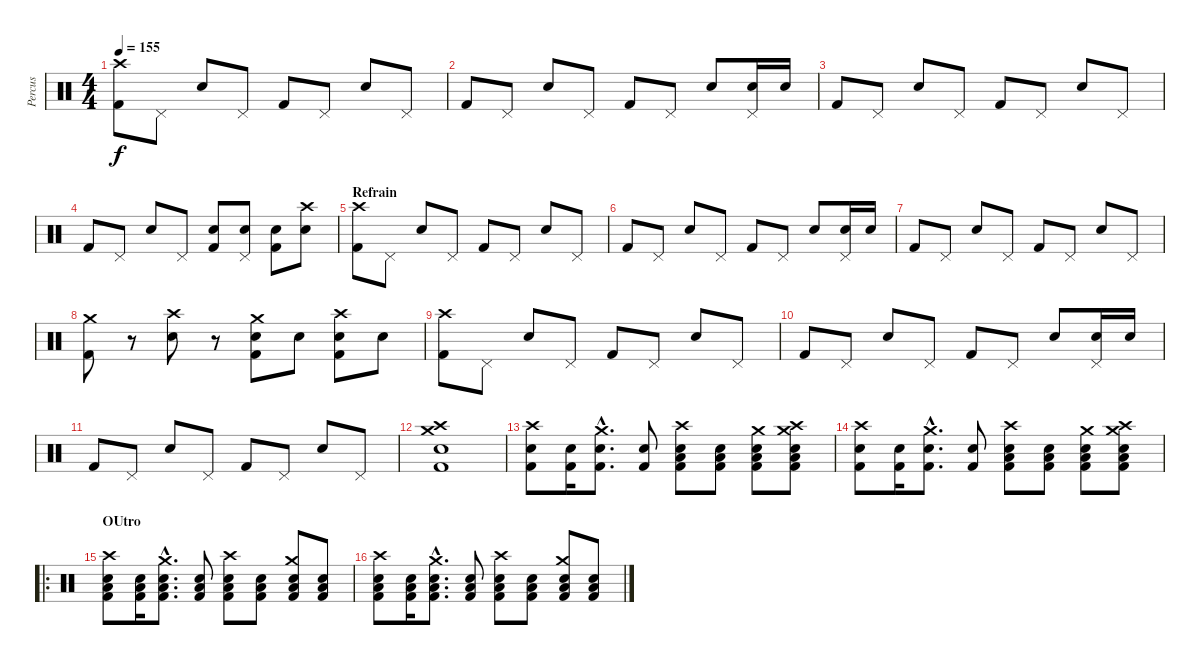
\track ("Percus" "Percus") {instrument percussion}
\staff {score}
\articulation defaults
\ts (4 4)
\tempo 155
\clef neutral
\ks c
("Crash high (hit)" "Kick (hit) 2").8{dy f} "Pedal Hi-Hat (hit)".8 "Snare (hit) 2".8 "Pedal Hi-Hat (hit)".8 "Kick (hit) 2".8 "Pedal Hi-Hat (hit)".8 "Snare (hit) 2".8 "Pedal Hi-Hat (hit)".8 |
"Kick (hit) 2".8 "Pedal Hi-Hat (hit)".8 "Snare (hit) 2".8 "Pedal Hi-Hat (hit)".8 "Kick (hit) 2".8 "Pedal Hi-Hat (hit)".8 "Snare (hit) 2".8 ("Pedal Hi-Hat (hit)" "Snare (hit) 2").16 "Snare (hit) 2".16 |
"Kick (hit) 2".8 "Pedal Hi-Hat (hit)".8 "Snare (hit) 2".8 "Pedal Hi-Hat (hit)".8 "Kick (hit) 2".8 "Pedal Hi-Hat (hit)".8 "Snare (hit) 2".8 "Pedal Hi-Hat (hit)".8 |
"Kick (hit) 2".8 "Pedal Hi-Hat (hit)".8 "Snare (hit) 2".8 "Pedal Hi-Hat (hit)".8 ("Snare (hit) 2" "Kick (hit) 2").8 ("Pedal Hi-Hat (hit)" "Snare (hit) 2").8 ("Snare (hit) 2" "Kick (hit) 2").8 ("Crash high (hit)" "Snare (hit) 2").8 |
\section ("" "Refrain")
("Crash high (hit)" "Kick (hit) 2").8 "Pedal Hi-Hat (hit)".8 "Snare (hit) 2".8 "Pedal Hi-Hat (hit)".8 "Kick (hit) 2".8 "Pedal Hi-Hat (hit)".8 "Snare (hit) 2".8 "Pedal Hi-Hat (hit)".8 |
"Kick (hit) 2".8 "Pedal Hi-Hat (hit)".8 "Snare (hit) 2".8 "Pedal Hi-Hat (hit)".8 "Kick (hit) 2".8 "Pedal Hi-Hat (hit)".8 "Snare (hit) 2".8 ("Pedal Hi-Hat (hit)" "Snare (hit) 2").16 "Snare (hit) 2".16 |
"Kick (hit) 2".8 "Pedal Hi-Hat (hit)".8 "Snare (hit) 2".8 "Pedal Hi-Hat (hit)".8 "Kick (hit) 2".8 "Pedal Hi-Hat (hit)".8 "Snare (hit) 2".8 "Pedal Hi-Hat (hit)".8 |
("Crash medium (hit)" "Kick (hit) 2").8 r.8 ("Crash high (hit)" "Snare (hit) 2").8 r.8 ("Crash medium (hit)" "Snare (hit) 2" "Kick (hit) 2").8 "Snare (hit) 2".8 ("Crash high (hit)" "Snare (hit) 2" "Kick (hit) 2").8 "Snare (hit) 2".8 |
("Crash high (hit)" "Kick (hit) 2").8 "Pedal Hi-Hat (hit)".8 "Snare (hit) 2".8 "Pedal Hi-Hat (hit)".8 "Kick (hit) 2".8 "Pedal Hi-Hat (hit)".8 "Snare (hit) 2".8 "Pedal Hi-Hat (hit)".8 |
"Kick (hit) 2".8 "Pedal Hi-Hat (hit)".8 "Snare (hit) 2".8 "Pedal Hi-Hat (hit)".8 "Kick (hit) 2".8 "Pedal Hi-Hat (hit)".8 "Snare (hit) 2".8 ("Pedal Hi-Hat (hit)" "Snare (hit) 2").16 "Snare (hit) 2".16 |
"Kick (hit) 2".8 "Pedal Hi-Hat (hit)".8 "Snare (hit) 2".8 "Pedal Hi-Hat (hit)".8 "Kick (hit) 2".8 "Pedal Hi-Hat (hit)".8 "Snare (hit) 2".8 "Pedal Hi-Hat (hit)".8 |
("Crash medium (hit)" "Crash high (hit)" "Snare (hit) 2" "Kick (hit) 2").1 |
("Crash high (hit)" "Snare (hit) 2" "Kick (hit) 2").8 ("Snare (hit) 2" "Kick (hit) 2").16 ("Crash medium (hit)"{hac} "Snare (hit) 2"{hac} "Kick (hit) 2"{hac}).8{d} ("Snare (hit) 2" "Kick (hit) 2").8 ("Crash high (hit)" "Snare (hit) 2" "Low Tom (hit)" "Kick (hit) 2").8 ("Snare (hit) 2" "Low Tom (hit)" "Kick (hit) 2").8 ("Crash medium (hit)" "Snare (hit) 2" "Low Floor Tom (hit)" "Kick (hit) 2").8 ("Crash high (hit)" "Crash medium (hit)" "Snare (hit) 2" "Low Floor Tom (hit)" "Kick (hit) 2").8 |
("Crash high (hit)" "Snare (hit) 2" "Kick (hit) 2").8 ("Snare (hit) 2" "Kick (hit) 2").16 ("Crash medium (hit)"{hac} "Snare (hit) 2"{hac} "Kick (hit) 2"{hac}).8{d} ("Snare (hit) 2" "Kick (hit) 2").8 ("Crash high (hit)" "Snare (hit) 2" "Low Tom (hit)" "Kick (hit) 2").8 ("Snare (hit) 2" "Low Tom (hit)" "Kick (hit) 2").8 ("Crash medium (hit)" "Snare (hit) 2" "Low Floor Tom (hit)" "Kick (hit) 2").8 ("Crash high (hit)" "Crash medium (hit)" "Snare (hit) 2" "Low Floor Tom (hit)" "Kick (hit) 2").8 |
\ro
\section ("" "OUtro")
("Crash high (hit)" "Electric Snare (hit)" "Low Floor Tom (hit)" "Kick (hit) 2").8 ("Electric Snare (hit)" "Low Tom (hit)" "Kick (hit) 2").16 ("Crash medium (hit)"{hac} "Electric Snare (hit)"{hac} "Low Floor Tom (hit)"{hac} "Kick (hit) 2"{hac}).8{d} ("Electric Snare (hit)" "Low Tom (hit)" "Kick (hit) 2").8 ("Crash high (hit)" "Electric Snare (hit)" "Low Floor Tom (hit)" "Kick (hit) 2").8 ("Electric Snare (hit)" "Low Tom (hit)" "Kick (hit) 2").8 ("Crash medium (hit)" "Electric Snare (hit)" "Low Floor Tom (hit)" "Kick (hit) 2").8 ("Electric Snare (hit)" "Low Tom (hit)" "Kick (hit) 2").8 |
("Crash high (hit)" "Electric Snare (hit)" "Low Floor Tom (hit)" "Kick (hit) 2").8 ("Electric Snare (hit)" "Low Tom (hit)" "Kick (hit) 2").16 ("Crash medium (hit)"{hac} "Electric Snare (hit)"{hac} "Low Floor Tom (hit)"{hac} "Kick (hit) 2"{hac}).8{d} ("Electric Snare (hit)" "Low Tom (hit)" "Kick (hit) 2").8 ("Crash high (hit)" "Electric Snare (hit)" "Low Floor Tom (hit)" "Kick (hit) 2").8 ("Electric Snare (hit)" "Low Tom (hit)" "Kick (hit) 2").8 ("Crash medium (hit)" "Electric Snare (hit)" "Low Floor Tom (hit)" "Kick (hit) 2").8 ("Electric Snare (hit)" "Low Tom (hit)" "Kick (hit) 2").8
